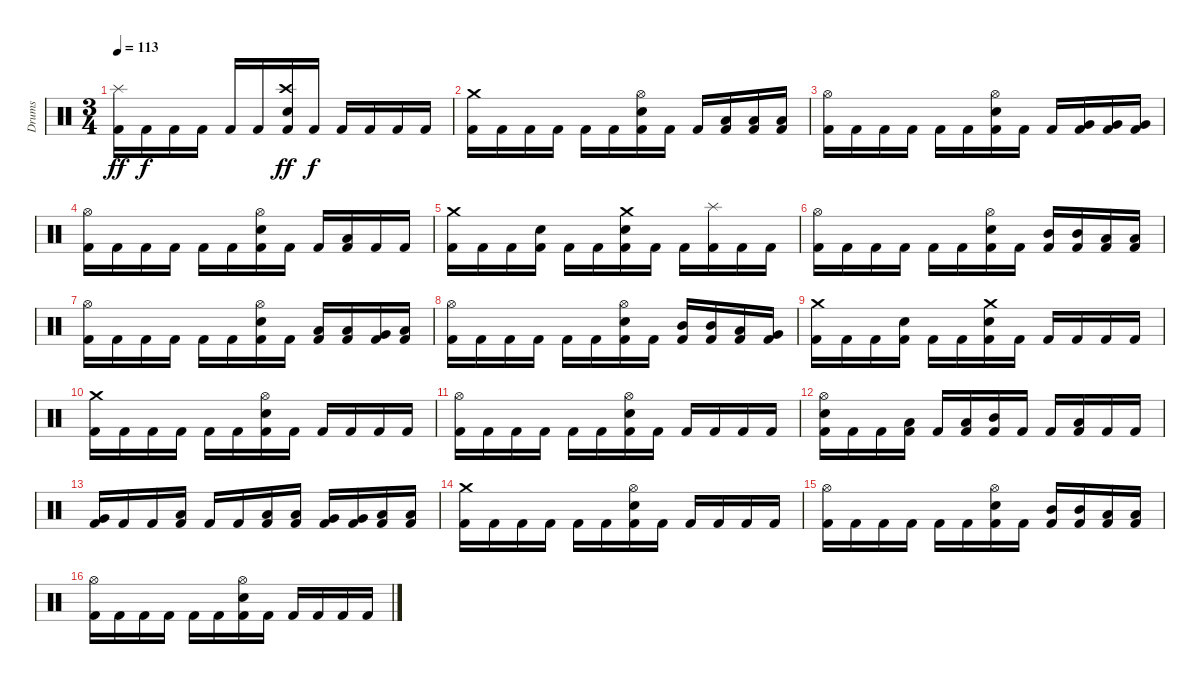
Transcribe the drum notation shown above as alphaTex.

\track ("Drums" "Drums") {instrument percussion}
\staff {score}
\articulation defaults
\ts (3 4)
\tempo 113
\clef neutral
\ks c
("Splash (hit)" "Kick (hit) 2").16{dy ff} "Kick (hit) 2".16{dy f} "Kick (hit) 2".16 "Kick (hit) 2".16 "Kick (hit) 2".16 "Kick (hit) 2".16 ("Crash high (hit)" "Electric Snare (hit)" "Kick (hit) 2").16{dy ff} "Kick (hit) 2".16{dy f} "Kick (hit) 2".16 "Kick (hit) 2".16 "Kick (hit) 2".16 "Kick (hit) 2".16 |
("Crash medium (hit)" "Kick (hit) 2").16 "Kick (hit) 2".16 "Kick (hit) 2".16 "Kick (hit) 2".16 "Kick (hit) 2".16 "Kick (hit) 2".16 ("Hi-Hat (open)" "Electric Snare (hit)" "Kick (hit) 2").16 "Kick (hit) 2".16 "Kick (hit) 2".16 ("Low Tom (hit)" "Kick (hit) 2").16 ("Low Tom (hit)" "Kick (hit) 2").16 ("Low Tom (hit)" "Kick (hit) 2").16 |
("Hi-Hat (open)" "Kick (hit) 2").16 "Kick (hit) 2".16 "Kick (hit) 2".16 "Kick (hit) 2".16 "Kick (hit) 2".16 "Kick (hit) 2".16 ("Hi-Hat (open)" "Electric Snare (hit)" "Kick (hit) 2").16 "Kick (hit) 2".16 "Kick (hit) 2".16 ("Very Low Tom (hit)" "Kick (hit) 2").16 ("Very Low Tom (hit)" "Kick (hit) 2").16 ("Very Low Tom (hit)" "Kick (hit) 2").16 |
("Hi-Hat (open)" "Kick (hit) 2").16 "Kick (hit) 2".16 "Kick (hit) 2".16 "Kick (hit) 2".16 "Kick (hit) 2".16 "Kick (hit) 2".16 ("Hi-Hat (open)" "Electric Snare (hit)" "Kick (hit) 2").16 "Kick (hit) 2".16 "Kick (hit) 2".16 ("Low Tom (hit)" "Kick (hit) 2").16 "Kick (hit) 2".16 "Kick (hit) 2".16 |
("Crash medium (hit)" "Kick (hit) 2").16 "Kick (hit) 2".16 "Kick (hit) 2".16 ("Electric Snare (hit)" "Kick (hit) 2").16 "Kick (hit) 2".16 "Kick (hit) 2".16 ("Crash medium (hit)" "Electric Snare (hit)" "Kick (hit) 2").16 "Kick (hit) 2".16 "Kick (hit) 2".16 ("Splash (hit)" "Kick (hit) 2").16 "Kick (hit) 2".16 "Kick (hit) 2".16 |
("Hi-Hat (open)" "Kick (hit) 2").16 "Kick (hit) 2".16 "Kick (hit) 2".16 "Kick (hit) 2".16 "Kick (hit) 2".16 "Kick (hit) 2".16 ("Hi-Hat (open)" "Electric Snare (hit)" "Kick (hit) 2").16 "Kick (hit) 2".16 ("Mid Tom (hit)" "Kick (hit) 2").16 ("Mid Tom (hit)" "Kick (hit) 2").16 ("Low Tom (hit)" "Kick (hit) 2").16 ("Low Tom (hit)" "Kick (hit) 2").16 |
("Hi-Hat (open)" "Kick (hit) 2").16 "Kick (hit) 2".16 "Kick (hit) 2".16 "Kick (hit) 2".16 "Kick (hit) 2".16 "Kick (hit) 2".16 ("Hi-Hat (open)" "Electric Snare (hit)" "Kick (hit) 2").16 "Kick (hit) 2".16 ("Low Tom (hit)" "Kick (hit) 2").16 ("Low Tom (hit)" "Kick (hit) 2").16 ("Very Low Tom (hit)" "Kick (hit) 2").16 ("Low Floor Tom (hit)" "Kick (hit) 2").16 |
("Hi-Hat (open)" "Kick (hit) 2").16 "Kick (hit) 2".16 "Kick (hit) 2".16 "Kick (hit) 2".16 "Kick (hit) 2".16 "Kick (hit) 2".16 ("Hi-Hat (open)" "Electric Snare (hit)" "Kick (hit) 2").16 "Kick (hit) 2".16 ("Mid Tom (hit)" "Kick (hit) 2").16 ("Mid Tom (hit)" "Kick (hit) 2").16 ("Low Tom (hit)" "Kick (hit) 2").16 ("Very Low Tom (hit)" "Kick (hit) 2").16 |
("Crash medium (hit)" "Kick (hit) 2").16 "Kick (hit) 2".16 "Kick (hit) 2".16 ("Electric Snare (hit)" "Kick (hit) 2").16 "Kick (hit) 2".16 "Kick (hit) 2".16 ("Crash medium (hit)" "Electric Snare (hit)" "Kick (hit) 2").16 "Kick (hit) 2".16 "Kick (hit) 2".16 "Kick (hit) 2".16 "Kick (hit) 2".16 "Kick (hit) 2".16 |
("Crash medium (hit)" "Kick (hit) 2").16 "Kick (hit) 2".16 "Kick (hit) 2".16 "Kick (hit) 2".16 "Kick (hit) 2".16 "Kick (hit) 2".16 ("Hi-Hat (open)" "Electric Snare (hit)" "Kick (hit) 2").16 "Kick (hit) 2".16 "Kick (hit) 2".16 "Kick (hit) 2".16 "Kick (hit) 2".16 "Kick (hit) 2".16 |
("Hi-Hat (open)" "Kick (hit) 2").16 "Kick (hit) 2".16 "Kick (hit) 2".16 "Kick (hit) 2".16 "Kick (hit) 2".16 "Kick (hit) 2".16 ("Hi-Hat (open)" "Electric Snare (hit)" "Kick (hit) 2").16 "Kick (hit) 2".16 "Kick (hit) 2".16 "Kick (hit) 2".16 "Kick (hit) 2".16 "Kick (hit) 2".16 |
("Hi-Hat (open)" "Electric Snare (hit)" "Kick (hit) 2").16 "Kick (hit) 2".16 "Kick (hit) 2".16 ("Low Tom (hit)" "Kick (hit) 2").16 "Kick (hit) 2".16 ("Low Tom (hit)" "Kick (hit) 2").16 ("Mid Tom (hit)" "Kick (hit) 2").16 "Kick (hit) 2".16 "Kick (hit) 2".16 ("Low Tom (hit)" "Kick (hit) 2").16 "Kick (hit) 2".16 "Kick (hit) 2".16 |
("Very Low Tom (hit)" "Kick (hit) 2").16 "Kick (hit) 2".16 "Kick (hit) 2".16 ("Low Floor Tom (hit)" "Kick (hit) 2").16 "Kick (hit) 2".16 "Kick (hit) 2".16 ("Low Tom (hit)" "Kick (hit) 2").16 ("Low Tom (hit)" "Kick (hit) 2").16 ("Very Low Tom (hit)" "Kick (hit) 2").16 ("Very Low Tom (hit)" "Kick (hit) 2").16 ("Low Floor Tom (hit)" "Kick (hit) 2").16 ("Low Floor Tom (hit)" "Kick (hit) 2").16 |
("Crash medium (hit)" "Kick (hit) 2").16 "Kick (hit) 2".16 "Kick (hit) 2".16 "Kick (hit) 2".16 "Kick (hit) 2".16 "Kick (hit) 2".16 ("Hi-Hat (open)" "Electric Snare (hit)" "Kick (hit) 2").16 "Kick (hit) 2".16 "Kick (hit) 2".16 "Kick (hit) 2".16 "Kick (hit) 2".16 "Kick (hit) 2".16 |
("Hi-Hat (open)" "Kick (hit) 2").16 "Kick (hit) 2".16 "Kick (hit) 2".16 "Kick (hit) 2".16 "Kick (hit) 2".16 "Kick (hit) 2".16 ("Hi-Hat (open)" "Electric Snare (hit)" "Kick (hit) 2").16 "Kick (hit) 2".16 ("Mid Tom (hit)" "Kick (hit) 2").16 ("Mid Tom (hit)" "Kick (hit) 2").16 ("Low Tom (hit)" "Kick (hit) 2").16 ("Low Tom (hit)" "Kick (hit) 2").16 |
("Hi-Hat (open)" "Kick (hit) 2").16 "Kick (hit) 2".16 "Kick (hit) 2".16 "Kick (hit) 2".16 "Kick (hit) 2".16 "Kick (hit) 2".16 ("Hi-Hat (open)" "Electric Snare (hit)" "Kick (hit) 2").16 "Kick (hit) 2".16 "Kick (hit) 2".16 "Kick (hit) 2".16 "Kick (hit) 2".16 "Kick (hit) 2".16
